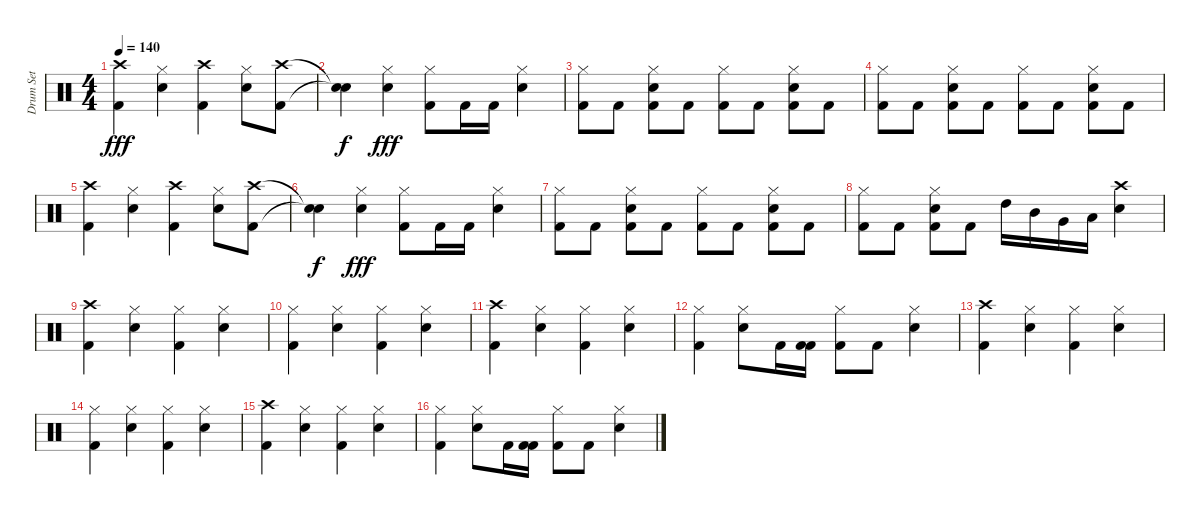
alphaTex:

\track ("Drum Set" "Drum Set") {instrument percussion}
\staff {score}
\articulation defaults
\ts (4 4)
\tempo 140
\clef neutral
\ks c
("Kick (hit) 2" "Crash high (hit)").4{dy fff} ("Electric Snare (hit)" "Hi-Hat (closed)").4 ("Kick (hit) 2" "Crash high (hit)").4 ("Electric Snare (hit)" "Hi-Hat (closed)").8 ("Kick (hit) 2" "Crash high (hit)").8 |
("Snare (hit)"{t} "Snare (hit)"{t}).4{dy f} ("Electric Snare (hit)" "Hi-Hat (closed)").4{dy fff} ("Kick (hit) 2" "Hi-Hat (closed)").8 "Kick (hit) 2".16 "Kick (hit) 2".16 ("Electric Snare (hit)" "Hi-Hat (closed)").4 |
("Hi-Hat (closed)" "Kick (hit) 2").8 "Kick (hit) 2".8 ("Electric Snare (hit)" "Hi-Hat (closed)" "Kick (hit) 2").8 "Kick (hit) 2".8 ("Kick (hit) 2" "Hi-Hat (closed)").8 "Kick (hit) 2".8 ("Electric Snare (hit)" "Kick (hit) 2" "Hi-Hat (closed)").8 "Kick (hit) 2".8 |
("Kick (hit) 2" "Hi-Hat (closed)").8 "Kick (hit) 2".8 ("Electric Snare (hit)" "Kick (hit) 2" "Hi-Hat (closed)").8 "Kick (hit) 2".8 ("Hi-Hat (closed)" "Kick (hit) 2").8 "Kick (hit) 2".8 ("Electric Snare (hit)" "Hi-Hat (closed)" "Kick (hit) 2").8 "Kick (hit) 2".8 |
("Kick (hit) 2" "Crash high (hit)").4 ("Electric Snare (hit)" "Hi-Hat (closed)").4 ("Kick (hit) 2" "Crash high (hit)").4 ("Electric Snare (hit)" "Hi-Hat (closed)").8 ("Crash high (hit)" "Kick (hit) 2").8 |
("Snare (hit)"{t} "Snare (hit)"{t}).4{dy f} ("Electric Snare (hit)" "Hi-Hat (closed)").4{dy fff} ("Hi-Hat (closed)" "Kick (hit) 2").8 "Kick (hit) 2".16 "Kick (hit) 2".16 ("Electric Snare (hit)" "Hi-Hat (closed)").4 |
("Hi-Hat (closed)" "Kick (hit) 2").8 "Kick (hit) 2".8 ("Electric Snare (hit)" "Hi-Hat (closed)" "Kick (hit) 2").8 "Kick (hit) 2".8 ("Hi-Hat (closed)" "Kick (hit) 2").8 "Kick (hit) 2".8 ("Electric Snare (hit)" "Hi-Hat (closed)" "Kick (hit) 2").8 "Kick (hit) 2".8 |
("Hi-Hat (closed)" "Kick (hit) 2").8 "Kick (hit) 2".8 ("Electric Snare (hit)" "Kick (hit) 2" "Hi-Hat (closed)").8 "Kick (hit) 2".8 "High Tom (hit)".16 "Mid Tom (hit)".16 "Very Low Tom (hit)".16 "Low Floor Tom (hit)".16 ("Electric Snare (hit)" "Crash high (hit)").4 |
("Kick (hit) 2" "Crash high (hit)").4 ("Electric Snare (hit)" "Hi-Hat (closed)").4 ("Kick (hit) 2" "Hi-Hat (closed)").4 ("Electric Snare (hit)" "Hi-Hat (closed)").4 |
("Kick (hit) 2" "Hi-Hat (closed)").4 ("Electric Snare (hit)" "Hi-Hat (closed)").4 ("Kick (hit) 2" "Hi-Hat (closed)").4 ("Electric Snare (hit)" "Hi-Hat (closed)").4 |
("Kick (hit) 2" "Crash high (hit)").4 ("Electric Snare (hit)" "Hi-Hat (closed)").4 ("Kick (hit) 2" "Hi-Hat (closed)").4 ("Electric Snare (hit)" "Hi-Hat (closed)").4 |
("Kick (hit) 2" "Hi-Hat (closed)").4 ("Electric Snare (hit)" "Hi-Hat (closed)").8 "Kick (hit) 2".16 ("Kick (hit) 2" "Kick (hit) 2").16 ("Hi-Hat (closed)" "Kick (hit) 2").8 "Kick (hit) 2".8 ("Electric Snare (hit)" "Hi-Hat (closed)").4 |
("Kick (hit) 2" "Crash high (hit)").4 ("Electric Snare (hit)" "Hi-Hat (closed)").4 ("Kick (hit) 2" "Hi-Hat (closed)").4 ("Electric Snare (hit)" "Hi-Hat (closed)").4 |
("Kick (hit) 2" "Hi-Hat (closed)").4 ("Electric Snare (hit)" "Hi-Hat (closed)").4 ("Kick (hit) 2" "Hi-Hat (closed)").4 ("Electric Snare (hit)" "Hi-Hat (closed)").4 |
("Kick (hit) 2" "Crash high (hit)").4 ("Electric Snare (hit)" "Hi-Hat (closed)").4 ("Kick (hit) 2" "Hi-Hat (closed)").4 ("Electric Snare (hit)" "Hi-Hat (closed)").4 |
("Kick (hit) 2" "Hi-Hat (closed)").4 ("Electric Snare (hit)" "Hi-Hat (closed)").8 "Kick (hit) 2".16 ("Kick (hit) 2" "Kick (hit) 2").16 ("Kick (hit) 2" "Hi-Hat (closed)").8 "Kick (hit) 2".8 ("Electric Snare (hit)" "Hi-Hat (closed)").4
